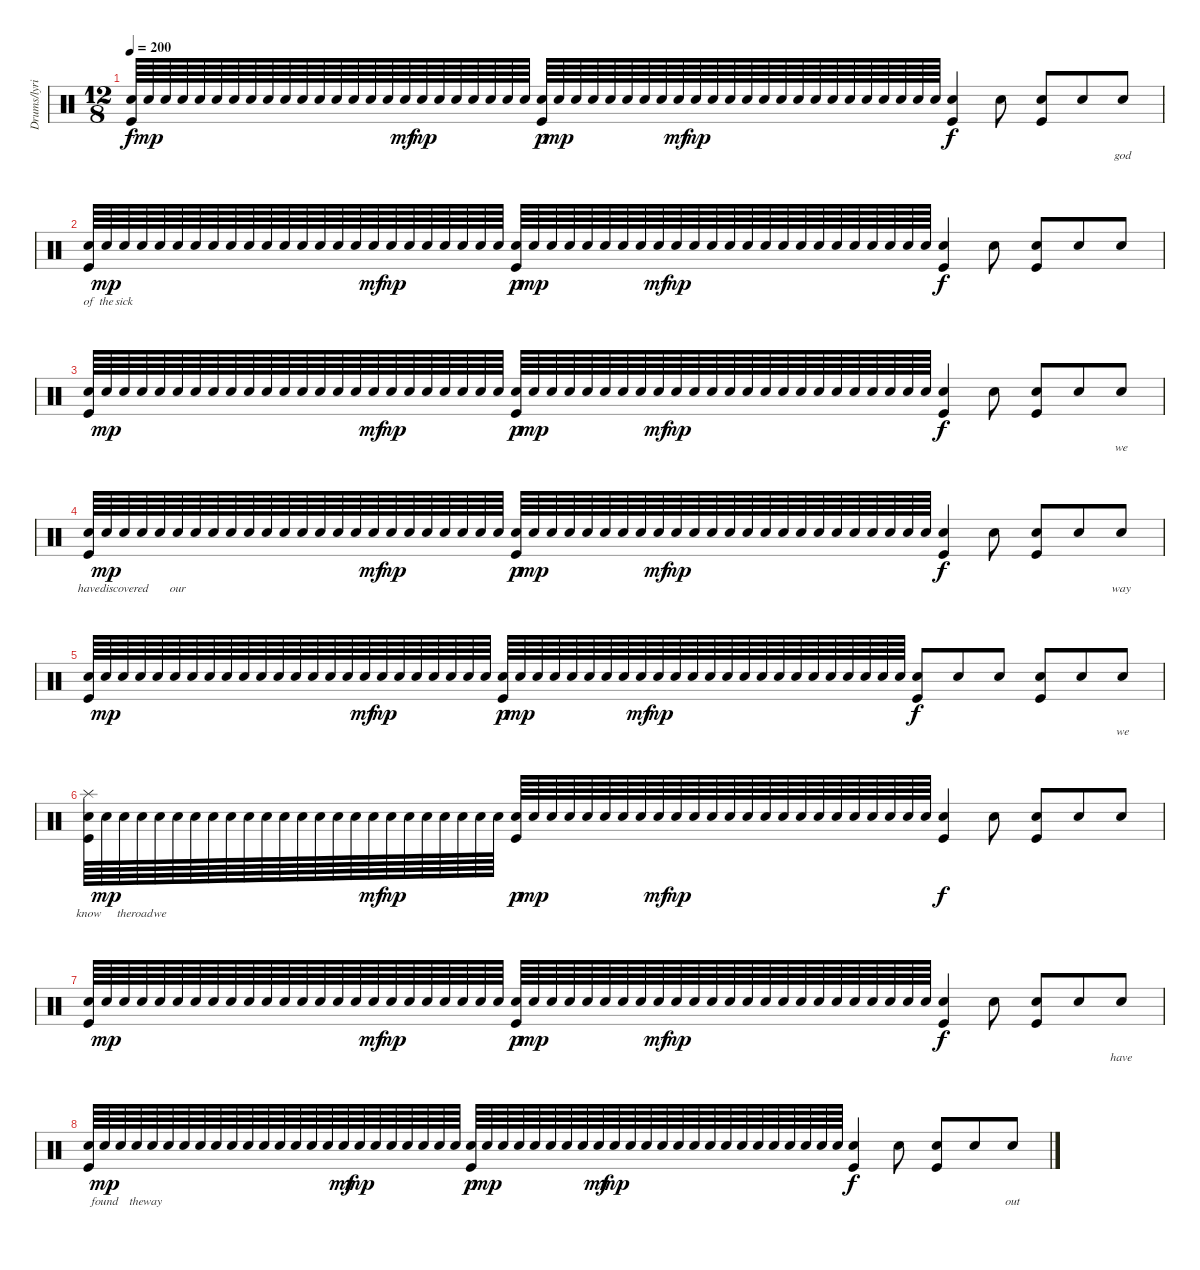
\track ("Drums/lyrics" "Drums/lyri") {instrument percussion}
\staff {score}
\articulation defaults
\ts (12 8)
\tempo 200
\clef neutral
\ks c
("Snare (hit) 2" "Kick (hit)").64{lyrics (0 "") lyrics (1 "") lyrics (2 "") lyrics (3 "") lyrics (4 "") dy f} "Snare (hit) 2".64{lyrics (0 "") lyrics (1 "") lyrics (2 "") lyrics (3 "") lyrics (4 "") dy mp} "Snare (hit) 2".64{lyrics (0 "") lyrics (1 "") lyrics (2 "") lyrics (3 "") lyrics (4 "")} "Snare (hit) 2".64{lyrics (0 "") lyrics (1 "") lyrics (2 "") lyrics (3 "") lyrics (4 "")} "Snare (hit) 2".64{lyrics (0 "") lyrics (1 "") lyrics (2 "") lyrics (3 "") lyrics (4 "")} "Snare (hit) 2".64{lyrics (0 "") lyrics (1 "") lyrics (2 "") lyrics (3 "") lyrics (4 "")} "Snare (hit) 2".64{lyrics (0 "") lyrics (1 "") lyrics (2 "") lyrics (3 "") lyrics (4 "")} "Snare (hit) 2".64{lyrics (0 "") lyrics (1 "") lyrics (2 "") lyrics (3 "") lyrics (4 "")} "Snare (hit) 2".64{lyrics (0 "") lyrics (1 "") lyrics (2 "") lyrics (3 "") lyrics (4 "")} "Snare (hit) 2".64{lyrics (0 "") lyrics (1 "") lyrics (2 "") lyrics (3 "") lyrics (4 "")} "Snare (hit) 2".64{lyrics (0 "") lyrics (1 "") lyrics (2 "") lyrics (3 "") lyrics (4 "")} "Snare (hit) 2".64{lyrics (0 "") lyrics (1 "") lyrics (2 "") lyrics (3 "") lyrics (4 "")} "Snare (hit) 2".64{lyrics (0 "") lyrics (1 "") lyrics (2 "") lyrics (3 "") lyrics (4 "")} "Snare (hit) 2".64{lyrics (0 "") lyrics (1 "") lyrics (2 "") lyrics (3 "") lyrics (4 "")} "Snare (hit) 2".64{lyrics (0 "") lyrics (1 "") lyrics (2 "") lyrics (3 "") lyrics (4 "")} "Snare (hit) 2".64{lyrics (0 "") lyrics (1 "") lyrics (2 "") lyrics (3 "") lyrics (4 "")} "Snare (hit) 2".64{lyrics (0 "") lyrics (1 "") lyrics (2 "") lyrics (3 "") lyrics (4 "") dy mf} "Snare (hit) 2".64{lyrics (0 "") lyrics (1 "") lyrics (2 "") lyrics (3 "") lyrics (4 "") dy mp} "Snare (hit) 2".64{lyrics (0 "") lyrics (1 "") lyrics (2 "") lyrics (3 "") lyrics (4 "")} "Snare (hit) 2".64{lyrics (0 "") lyrics (1 "") lyrics (2 "") lyrics (3 "") lyrics (4 "")} "Snare (hit) 2".64{lyrics (0 "") lyrics (1 "") lyrics (2 "") lyrics (3 "") lyrics (4 "")} "Snare (hit) 2".64{lyrics (0 "") lyrics (1 "") lyrics (2 "") lyrics (3 "") lyrics (4 "")} "Snare (hit) 2".64{lyrics (0 "") lyrics (1 "") lyrics (2 "") lyrics (3 "") lyrics (4 "")} "Snare (hit) 2".64{lyrics (0 "") lyrics (1 "") lyrics (2 "") lyrics (3 "") lyrics (4 "")} ("Snare (hit) 2" "Kick (hit)").64{lyrics (0 "") lyrics (1 "") lyrics (2 "") lyrics (3 "") lyrics (4 "") dy p} "Snare (hit) 2".64{lyrics (0 "") lyrics (1 "") lyrics (2 "") lyrics (3 "") lyrics (4 "") dy mp} "Snare (hit) 2".64{lyrics (0 "") lyrics (1 "") lyrics (2 "") lyrics (3 "") lyrics (4 "")} "Snare (hit) 2".64{lyrics (0 "") lyrics (1 "") lyrics (2 "") lyrics (3 "") lyrics (4 "")} "Snare (hit) 2".64{lyrics (0 "") lyrics (1 "") lyrics (2 "") lyrics (3 "") lyrics (4 "")} "Snare (hit) 2".64{lyrics (0 "") lyrics (1 "") lyrics (2 "") lyrics (3 "") lyrics (4 "")} "Snare (hit) 2".64{lyrics (0 "") lyrics (1 "") lyrics (2 "") lyrics (3 "") lyrics (4 "")} "Snare (hit) 2".64{lyrics (0 "") lyrics (1 "") lyrics (2 "") lyrics (3 "") lyrics (4 "")} "Snare (hit) 2".64{lyrics (0 "") lyrics (1 "") lyrics (2 "") lyrics (3 "") lyrics (4 "") dy mf} "Snare (hit) 2".64{lyrics (0 "") lyrics (1 "") lyrics (2 "") lyrics (3 "") lyrics (4 "") dy mp} "Snare (hit) 2".64{lyrics (0 "") lyrics (1 "") lyrics (2 "") lyrics (3 "") lyrics (4 "")} "Snare (hit) 2".64{lyrics (0 "") lyrics (1 "") lyrics (2 "") lyrics (3 "") lyrics (4 "")} "Snare (hit) 2".64{lyrics (0 "") lyrics (1 "") lyrics (2 "") lyrics (3 "") lyrics (4 "")} "Snare (hit) 2".64{lyrics (0 "") lyrics (1 "") lyrics (2 "") lyrics (3 "") lyrics (4 "")} "Snare (hit) 2".64{lyrics (0 "") lyrics (1 "") lyrics (2 "") lyrics (3 "") lyrics (4 "")} "Snare (hit) 2".64{lyrics (0 "") lyrics (1 "") lyrics (2 "") lyrics (3 "") lyrics (4 "")} "Snare (hit) 2".64{lyrics (0 "") lyrics (1 "") lyrics (2 "") lyrics (3 "") lyrics (4 "")} "Snare (hit) 2".64{lyrics (0 "") lyrics (1 "") lyrics (2 "") lyrics (3 "") lyrics (4 "")} "Snare (hit) 2".64{lyrics (0 "") lyrics (1 "") lyrics (2 "") lyrics (3 "") lyrics (4 "")} "Snare (hit) 2".64{lyrics (0 "") lyrics (1 "") lyrics (2 "") lyrics (3 "") lyrics (4 "")} "Snare (hit) 2".64{lyrics (0 "") lyrics (1 "") lyrics (2 "") lyrics (3 "") lyrics (4 "")} "Snare (hit) 2".64{lyrics (0 "") lyrics (1 "") lyrics (2 "") lyrics (3 "") lyrics (4 "")} "Snare (hit) 2".64{lyrics (0 "") lyrics (1 "") lyrics (2 "") lyrics (3 "") lyrics (4 "")} "Snare (hit) 2".64{lyrics (0 "") lyrics (1 "") lyrics (2 "") lyrics (3 "") lyrics (4 "")} ("Snare (hit) 2" "Kick (hit)").4{lyrics (0 "") lyrics (1 "") lyrics (2 "") lyrics (3 "") lyrics (4 "") dy f} "Snare (hit) 2".8{lyrics (0 "") lyrics (1 "") lyrics (2 "") lyrics (3 "") lyrics (4 "")} ("Snare (hit) 2" "Kick (hit)").8{lyrics (0 "") lyrics (1 "") lyrics (2 "") lyrics (3 "") lyrics (4 "")} "Snare (hit) 2".8{lyrics (0 "") lyrics (1 "") lyrics (2 "") lyrics (3 "") lyrics (4 "")} "Snare (hit) 2".8{lyrics (0 "god") lyrics (1 "") lyrics (2 "") lyrics (3 "") lyrics (4 "")} |
("Snare (hit) 2" "Kick (hit)").64{lyrics (0 "of") lyrics (1 "") lyrics (2 "") lyrics (3 "") lyrics (4 "")} "Snare (hit) 2".64{lyrics (0 "the") lyrics (1 "") lyrics (2 "") lyrics (3 "") lyrics (4 "") dy mp} "Snare (hit) 2".64{lyrics (0 "sick") lyrics (1 "") lyrics (2 "") lyrics (3 "") lyrics (4 "")} "Snare (hit) 2".64{lyrics (0 "") lyrics (1 "") lyrics (2 "") lyrics (3 "") lyrics (4 "")} "Snare (hit) 2".64{lyrics (0 "") lyrics (1 "") lyrics (2 "") lyrics (3 "") lyrics (4 "")} "Snare (hit) 2".64{lyrics (0 "") lyrics (1 "") lyrics (2 "") lyrics (3 "") lyrics (4 "")} "Snare (hit) 2".64{lyrics (0 "") lyrics (1 "") lyrics (2 "") lyrics (3 "") lyrics (4 "")} "Snare (hit) 2".64{lyrics (0 "") lyrics (1 "") lyrics (2 "") lyrics (3 "") lyrics (4 "")} "Snare (hit) 2".64{lyrics (0 "") lyrics (1 "") lyrics (2 "") lyrics (3 "") lyrics (4 "")} "Snare (hit) 2".64{lyrics (0 "") lyrics (1 "") lyrics (2 "") lyrics (3 "") lyrics (4 "")} "Snare (hit) 2".64{lyrics (0 "") lyrics (1 "") lyrics (2 "") lyrics (3 "") lyrics (4 "")} "Snare (hit) 2".64{lyrics (0 "") lyrics (1 "") lyrics (2 "") lyrics (3 "") lyrics (4 "")} "Snare (hit) 2".64{lyrics (0 "") lyrics (1 "") lyrics (2 "") lyrics (3 "") lyrics (4 "")} "Snare (hit) 2".64{lyrics (0 "") lyrics (1 "") lyrics (2 "") lyrics (3 "") lyrics (4 "")} "Snare (hit) 2".64{lyrics (0 "") lyrics (1 "") lyrics (2 "") lyrics (3 "") lyrics (4 "")} "Snare (hit) 2".64{lyrics (0 "") lyrics (1 "") lyrics (2 "") lyrics (3 "") lyrics (4 "")} "Snare (hit) 2".64{lyrics (0 "") lyrics (1 "") lyrics (2 "") lyrics (3 "") lyrics (4 "") dy mf} "Snare (hit) 2".64{lyrics (0 "") lyrics (1 "") lyrics (2 "") lyrics (3 "") lyrics (4 "") dy mp} "Snare (hit) 2".64{lyrics (0 "") lyrics (1 "") lyrics (2 "") lyrics (3 "") lyrics (4 "")} "Snare (hit) 2".64{lyrics (0 "") lyrics (1 "") lyrics (2 "") lyrics (3 "") lyrics (4 "")} "Snare (hit) 2".64{lyrics (0 "") lyrics (1 "") lyrics (2 "") lyrics (3 "") lyrics (4 "")} "Snare (hit) 2".64{lyrics (0 "") lyrics (1 "") lyrics (2 "") lyrics (3 "") lyrics (4 "")} "Snare (hit) 2".64{lyrics (0 "") lyrics (1 "") lyrics (2 "") lyrics (3 "") lyrics (4 "")} "Snare (hit) 2".64{lyrics (0 "") lyrics (1 "") lyrics (2 "") lyrics (3 "") lyrics (4 "")} ("Snare (hit) 2" "Kick (hit)").64{lyrics (0 "") lyrics (1 "") lyrics (2 "") lyrics (3 "") lyrics (4 "") dy p} "Snare (hit) 2".64{lyrics (0 "") lyrics (1 "") lyrics (2 "") lyrics (3 "") lyrics (4 "") dy mp} "Snare (hit) 2".64{lyrics (0 "") lyrics (1 "") lyrics (2 "") lyrics (3 "") lyrics (4 "")} "Snare (hit) 2".64{lyrics (0 "") lyrics (1 "") lyrics (2 "") lyrics (3 "") lyrics (4 "")} "Snare (hit) 2".64{lyrics (0 "") lyrics (1 "") lyrics (2 "") lyrics (3 "") lyrics (4 "")} "Snare (hit) 2".64{lyrics (0 "") lyrics (1 "") lyrics (2 "") lyrics (3 "") lyrics (4 "")} "Snare (hit) 2".64{lyrics (0 "") lyrics (1 "") lyrics (2 "") lyrics (3 "") lyrics (4 "")} "Snare (hit) 2".64{lyrics (0 "") lyrics (1 "") lyrics (2 "") lyrics (3 "") lyrics (4 "")} "Snare (hit) 2".64{lyrics (0 "") lyrics (1 "") lyrics (2 "") lyrics (3 "") lyrics (4 "") dy mf} "Snare (hit) 2".64{lyrics (0 "") lyrics (1 "") lyrics (2 "") lyrics (3 "") lyrics (4 "") dy mp} "Snare (hit) 2".64{lyrics (0 "") lyrics (1 "") lyrics (2 "") lyrics (3 "") lyrics (4 "")} "Snare (hit) 2".64{lyrics (0 "") lyrics (1 "") lyrics (2 "") lyrics (3 "") lyrics (4 "")} "Snare (hit) 2".64{lyrics (0 "") lyrics (1 "") lyrics (2 "") lyrics (3 "") lyrics (4 "")} "Snare (hit) 2".64{lyrics (0 "") lyrics (1 "") lyrics (2 "") lyrics (3 "") lyrics (4 "")} "Snare (hit) 2".64{lyrics (0 "") lyrics (1 "") lyrics (2 "") lyrics (3 "") lyrics (4 "")} "Snare (hit) 2".64{lyrics (0 "") lyrics (1 "") lyrics (2 "") lyrics (3 "") lyrics (4 "")} "Snare (hit) 2".64{lyrics (0 "") lyrics (1 "") lyrics (2 "") lyrics (3 "") lyrics (4 "")} "Snare (hit) 2".64{lyrics (0 "") lyrics (1 "") lyrics (2 "") lyrics (3 "") lyrics (4 "")} "Snare (hit) 2".64{lyrics (0 "") lyrics (1 "") lyrics (2 "") lyrics (3 "") lyrics (4 "")} "Snare (hit) 2".64{lyrics (0 "") lyrics (1 "") lyrics (2 "") lyrics (3 "") lyrics (4 "")} "Snare (hit) 2".64{lyrics (0 "") lyrics (1 "") lyrics (2 "") lyrics (3 "") lyrics (4 "")} "Snare (hit) 2".64{lyrics (0 "") lyrics (1 "") lyrics (2 "") lyrics (3 "") lyrics (4 "")} "Snare (hit) 2".64{lyrics (0 "") lyrics (1 "") lyrics (2 "") lyrics (3 "") lyrics (4 "")} "Snare (hit) 2".64{lyrics (0 "") lyrics (1 "") lyrics (2 "") lyrics (3 "") lyrics (4 "")} ("Snare (hit) 2" "Kick (hit)").4{lyrics (0 "") lyrics (1 "") lyrics (2 "") lyrics (3 "") lyrics (4 "") dy f} "Snare (hit) 2".8{lyrics (0 "") lyrics (1 "") lyrics (2 "") lyrics (3 "") lyrics (4 "")} ("Snare (hit) 2" "Kick (hit)").8{lyrics (0 "") lyrics (1 "") lyrics (2 "") lyrics (3 "") lyrics (4 "")} "Snare (hit) 2".8{lyrics (0 "") lyrics (1 "") lyrics (2 "") lyrics (3 "") lyrics (4 "")} "Snare (hit) 2".8{lyrics (0 "") lyrics (1 "") lyrics (2 "") lyrics (3 "") lyrics (4 "")} |
("Snare (hit) 2" "Kick (hit)").64{lyrics (0 "") lyrics (1 "") lyrics (2 "") lyrics (3 "") lyrics (4 "")} "Snare (hit) 2".64{lyrics (0 "") lyrics (1 "") lyrics (2 "") lyrics (3 "") lyrics (4 "") dy mp} "Snare (hit) 2".64{lyrics (0 "") lyrics (1 "") lyrics (2 "") lyrics (3 "") lyrics (4 "")} "Snare (hit) 2".64{lyrics (0 "") lyrics (1 "") lyrics (2 "") lyrics (3 "") lyrics (4 "")} "Snare (hit) 2".64{lyrics (0 "") lyrics (1 "") lyrics (2 "") lyrics (3 "") lyrics (4 "")} "Snare (hit) 2".64{lyrics (0 "") lyrics (1 "") lyrics (2 "") lyrics (3 "") lyrics (4 "")} "Snare (hit) 2".64{lyrics (0 "") lyrics (1 "") lyrics (2 "") lyrics (3 "") lyrics (4 "")} "Snare (hit) 2".64{lyrics (0 "") lyrics (1 "") lyrics (2 "") lyrics (3 "") lyrics (4 "")} "Snare (hit) 2".64{lyrics (0 "") lyrics (1 "") lyrics (2 "") lyrics (3 "") lyrics (4 "")} "Snare (hit) 2".64{lyrics (0 "") lyrics (1 "") lyrics (2 "") lyrics (3 "") lyrics (4 "")} "Snare (hit) 2".64{lyrics (0 "") lyrics (1 "") lyrics (2 "") lyrics (3 "") lyrics (4 "")} "Snare (hit) 2".64{lyrics (0 "") lyrics (1 "") lyrics (2 "") lyrics (3 "") lyrics (4 "")} "Snare (hit) 2".64{lyrics (0 "") lyrics (1 "") lyrics (2 "") lyrics (3 "") lyrics (4 "")} "Snare (hit) 2".64{lyrics (0 "") lyrics (1 "") lyrics (2 "") lyrics (3 "") lyrics (4 "")} "Snare (hit) 2".64{lyrics (0 "") lyrics (1 "") lyrics (2 "") lyrics (3 "") lyrics (4 "")} "Snare (hit) 2".64{lyrics (0 "") lyrics (1 "") lyrics (2 "") lyrics (3 "") lyrics (4 "")} "Snare (hit) 2".64{lyrics (0 "") lyrics (1 "") lyrics (2 "") lyrics (3 "") lyrics (4 "") dy mf} "Snare (hit) 2".64{lyrics (0 "") lyrics (1 "") lyrics (2 "") lyrics (3 "") lyrics (4 "") dy mp} "Snare (hit) 2".64{lyrics (0 "") lyrics (1 "") lyrics (2 "") lyrics (3 "") lyrics (4 "")} "Snare (hit) 2".64{lyrics (0 "") lyrics (1 "") lyrics (2 "") lyrics (3 "") lyrics (4 "")} "Snare (hit) 2".64{lyrics (0 "") lyrics (1 "") lyrics (2 "") lyrics (3 "") lyrics (4 "")} "Snare (hit) 2".64{lyrics (0 "") lyrics (1 "") lyrics (2 "") lyrics (3 "") lyrics (4 "")} "Snare (hit) 2".64{lyrics (0 "") lyrics (1 "") lyrics (2 "") lyrics (3 "") lyrics (4 "")} "Snare (hit) 2".64{lyrics (0 "") lyrics (1 "") lyrics (2 "") lyrics (3 "") lyrics (4 "")} ("Snare (hit) 2" "Kick (hit)").64{lyrics (0 "") lyrics (1 "") lyrics (2 "") lyrics (3 "") lyrics (4 "") dy p} "Snare (hit) 2".64{lyrics (0 "") lyrics (1 "") lyrics (2 "") lyrics (3 "") lyrics (4 "") dy mp} "Snare (hit) 2".64{lyrics (0 "") lyrics (1 "") lyrics (2 "") lyrics (3 "") lyrics (4 "")} "Snare (hit) 2".64{lyrics (0 "") lyrics (1 "") lyrics (2 "") lyrics (3 "") lyrics (4 "")} "Snare (hit) 2".64{lyrics (0 "") lyrics (1 "") lyrics (2 "") lyrics (3 "") lyrics (4 "")} "Snare (hit) 2".64{lyrics (0 "") lyrics (1 "") lyrics (2 "") lyrics (3 "") lyrics (4 "")} "Snare (hit) 2".64{lyrics (0 "") lyrics (1 "") lyrics (2 "") lyrics (3 "") lyrics (4 "")} "Snare (hit) 2".64{lyrics (0 "") lyrics (1 "") lyrics (2 "") lyrics (3 "") lyrics (4 "")} "Snare (hit) 2".64{lyrics (0 "") lyrics (1 "") lyrics (2 "") lyrics (3 "") lyrics (4 "") dy mf} "Snare (hit) 2".64{lyrics (0 "") lyrics (1 "") lyrics (2 "") lyrics (3 "") lyrics (4 "") dy mp} "Snare (hit) 2".64{lyrics (0 "") lyrics (1 "") lyrics (2 "") lyrics (3 "") lyrics (4 "")} "Snare (hit) 2".64{lyrics (0 "") lyrics (1 "") lyrics (2 "") lyrics (3 "") lyrics (4 "")} "Snare (hit) 2".64{lyrics (0 "") lyrics (1 "") lyrics (2 "") lyrics (3 "") lyrics (4 "")} "Snare (hit) 2".64{lyrics (0 "") lyrics (1 "") lyrics (2 "") lyrics (3 "") lyrics (4 "")} "Snare (hit) 2".64{lyrics (0 "") lyrics (1 "") lyrics (2 "") lyrics (3 "") lyrics (4 "")} "Snare (hit) 2".64{lyrics (0 "") lyrics (1 "") lyrics (2 "") lyrics (3 "") lyrics (4 "")} "Snare (hit) 2".64{lyrics (0 "") lyrics (1 "") lyrics (2 "") lyrics (3 "") lyrics (4 "")} "Snare (hit) 2".64{lyrics (0 "") lyrics (1 "") lyrics (2 "") lyrics (3 "") lyrics (4 "")} "Snare (hit) 2".64{lyrics (0 "") lyrics (1 "") lyrics (2 "") lyrics (3 "") lyrics (4 "")} "Snare (hit) 2".64{lyrics (0 "") lyrics (1 "") lyrics (2 "") lyrics (3 "") lyrics (4 "")} "Snare (hit) 2".64{lyrics (0 "") lyrics (1 "") lyrics (2 "") lyrics (3 "") lyrics (4 "")} "Snare (hit) 2".64{lyrics (0 "") lyrics (1 "") lyrics (2 "") lyrics (3 "") lyrics (4 "")} "Snare (hit) 2".64{lyrics (0 "") lyrics (1 "") lyrics (2 "") lyrics (3 "") lyrics (4 "")} "Snare (hit) 2".64{lyrics (0 "") lyrics (1 "") lyrics (2 "") lyrics (3 "") lyrics (4 "")} ("Snare (hit) 2" "Kick (hit)").4{lyrics (0 "") lyrics (1 "") lyrics (2 "") lyrics (3 "") lyrics (4 "") dy f} "Snare (hit) 2".8{lyrics (0 "") lyrics (1 "") lyrics (2 "") lyrics (3 "") lyrics (4 "")} ("Snare (hit) 2" "Kick (hit)").8{lyrics (0 "") lyrics (1 "") lyrics (2 "") lyrics (3 "") lyrics (4 "")} "Snare (hit) 2".8{lyrics (0 "") lyrics (1 "") lyrics (2 "") lyrics (3 "") lyrics (4 "")} "Snare (hit) 2".8{lyrics (0 "we") lyrics (1 "") lyrics (2 "") lyrics (3 "") lyrics (4 "")} |
("Snare (hit) 2" "Kick (hit)").64{lyrics (0 "have") lyrics (1 "") lyrics (2 "") lyrics (3 "") lyrics (4 "")} "Snare (hit) 2".64{lyrics (0 "") lyrics (1 "") lyrics (2 "") lyrics (3 "") lyrics (4 "") dy mp} "Snare (hit) 2".64{lyrics (0 "discovered") lyrics (1 "") lyrics (2 "") lyrics (3 "") lyrics (4 "")} "Snare (hit) 2".64{lyrics (0 "") lyrics (1 "") lyrics (2 "") lyrics (3 "") lyrics (4 "")} "Snare (hit) 2".64{lyrics (0 "") lyrics (1 "") lyrics (2 "") lyrics (3 "") lyrics (4 "")} "Snare (hit) 2".64{lyrics (0 "our") lyrics (1 "") lyrics (2 "") lyrics (3 "") lyrics (4 "")} "Snare (hit) 2".64{lyrics (0 "") lyrics (1 "") lyrics (2 "") lyrics (3 "") lyrics (4 "")} "Snare (hit) 2".64{lyrics (0 "") lyrics (1 "") lyrics (2 "") lyrics (3 "") lyrics (4 "")} "Snare (hit) 2".64{lyrics (0 "") lyrics (1 "") lyrics (2 "") lyrics (3 "") lyrics (4 "")} "Snare (hit) 2".64{lyrics (0 "") lyrics (1 "") lyrics (2 "") lyrics (3 "") lyrics (4 "")} "Snare (hit) 2".64{lyrics (0 "") lyrics (1 "") lyrics (2 "") lyrics (3 "") lyrics (4 "")} "Snare (hit) 2".64{lyrics (0 "") lyrics (1 "") lyrics (2 "") lyrics (3 "") lyrics (4 "")} "Snare (hit) 2".64{lyrics (0 "") lyrics (1 "") lyrics (2 "") lyrics (3 "") lyrics (4 "")} "Snare (hit) 2".64{lyrics (0 "") lyrics (1 "") lyrics (2 "") lyrics (3 "") lyrics (4 "")} "Snare (hit) 2".64{lyrics (0 "") lyrics (1 "") lyrics (2 "") lyrics (3 "") lyrics (4 "")} "Snare (hit) 2".64{lyrics (0 "") lyrics (1 "") lyrics (2 "") lyrics (3 "") lyrics (4 "")} "Snare (hit) 2".64{lyrics (0 "") lyrics (1 "") lyrics (2 "") lyrics (3 "") lyrics (4 "") dy mf} "Snare (hit) 2".64{lyrics (0 "") lyrics (1 "") lyrics (2 "") lyrics (3 "") lyrics (4 "") dy mp} "Snare (hit) 2".64{lyrics (0 "") lyrics (1 "") lyrics (2 "") lyrics (3 "") lyrics (4 "")} "Snare (hit) 2".64{lyrics (0 "") lyrics (1 "") lyrics (2 "") lyrics (3 "") lyrics (4 "")} "Snare (hit) 2".64{lyrics (0 "") lyrics (1 "") lyrics (2 "") lyrics (3 "") lyrics (4 "")} "Snare (hit) 2".64{lyrics (0 "") lyrics (1 "") lyrics (2 "") lyrics (3 "") lyrics (4 "")} "Snare (hit) 2".64{lyrics (0 "") lyrics (1 "") lyrics (2 "") lyrics (3 "") lyrics (4 "")} "Snare (hit) 2".64{lyrics (0 "") lyrics (1 "") lyrics (2 "") lyrics (3 "") lyrics (4 "")} ("Snare (hit) 2" "Kick (hit)").64{lyrics (0 "") lyrics (1 "") lyrics (2 "") lyrics (3 "") lyrics (4 "") dy p} "Snare (hit) 2".64{lyrics (0 "") lyrics (1 "") lyrics (2 "") lyrics (3 "") lyrics (4 "") dy mp} "Snare (hit) 2".64{lyrics (0 "") lyrics (1 "") lyrics (2 "") lyrics (3 "") lyrics (4 "")} "Snare (hit) 2".64{lyrics (0 "") lyrics (1 "") lyrics (2 "") lyrics (3 "") lyrics (4 "")} "Snare (hit) 2".64{lyrics (0 "") lyrics (1 "") lyrics (2 "") lyrics (3 "") lyrics (4 "")} "Snare (hit) 2".64{lyrics (0 "") lyrics (1 "") lyrics (2 "") lyrics (3 "") lyrics (4 "")} "Snare (hit) 2".64{lyrics (0 "") lyrics (1 "") lyrics (2 "") lyrics (3 "") lyrics (4 "")} "Snare (hit) 2".64{lyrics (0 "") lyrics (1 "") lyrics (2 "") lyrics (3 "") lyrics (4 "")} "Snare (hit) 2".64{lyrics (0 "") lyrics (1 "") lyrics (2 "") lyrics (3 "") lyrics (4 "") dy mf} "Snare (hit) 2".64{lyrics (0 "") lyrics (1 "") lyrics (2 "") lyrics (3 "") lyrics (4 "") dy mp} "Snare (hit) 2".64{lyrics (0 "") lyrics (1 "") lyrics (2 "") lyrics (3 "") lyrics (4 "")} "Snare (hit) 2".64{lyrics (0 "") lyrics (1 "") lyrics (2 "") lyrics (3 "") lyrics (4 "")} "Snare (hit) 2".64{lyrics (0 "") lyrics (1 "") lyrics (2 "") lyrics (3 "") lyrics (4 "")} "Snare (hit) 2".64{lyrics (0 "") lyrics (1 "") lyrics (2 "") lyrics (3 "") lyrics (4 "")} "Snare (hit) 2".64{lyrics (0 "") lyrics (1 "") lyrics (2 "") lyrics (3 "") lyrics (4 "")} "Snare (hit) 2".64{lyrics (0 "") lyrics (1 "") lyrics (2 "") lyrics (3 "") lyrics (4 "")} "Snare (hit) 2".64{lyrics (0 "") lyrics (1 "") lyrics (2 "") lyrics (3 "") lyrics (4 "")} "Snare (hit) 2".64{lyrics (0 "") lyrics (1 "") lyrics (2 "") lyrics (3 "") lyrics (4 "")} "Snare (hit) 2".64{lyrics (0 "") lyrics (1 "") lyrics (2 "") lyrics (3 "") lyrics (4 "")} "Snare (hit) 2".64{lyrics (0 "") lyrics (1 "") lyrics (2 "") lyrics (3 "") lyrics (4 "")} "Snare (hit) 2".64{lyrics (0 "") lyrics (1 "") lyrics (2 "") lyrics (3 "") lyrics (4 "")} "Snare (hit) 2".64{lyrics (0 "") lyrics (1 "") lyrics (2 "") lyrics (3 "") lyrics (4 "")} "Snare (hit) 2".64{lyrics (0 "") lyrics (1 "") lyrics (2 "") lyrics (3 "") lyrics (4 "")} "Snare (hit) 2".64{lyrics (0 "") lyrics (1 "") lyrics (2 "") lyrics (3 "") lyrics (4 "")} ("Snare (hit) 2" "Kick (hit)").4{lyrics (0 "") lyrics (1 "") lyrics (2 "") lyrics (3 "") lyrics (4 "") dy f} "Snare (hit) 2".8{lyrics (0 "") lyrics (1 "") lyrics (2 "") lyrics (3 "") lyrics (4 "")} ("Snare (hit) 2" "Kick (hit)").8{lyrics (0 "") lyrics (1 "") lyrics (2 "") lyrics (3 "") lyrics (4 "")} "Snare (hit) 2".8{lyrics (0 "") lyrics (1 "") lyrics (2 "") lyrics (3 "") lyrics (4 "")} "Snare (hit) 2".8{lyrics (0 "way") lyrics (1 "") lyrics (2 "") lyrics (3 "") lyrics (4 "")} |
("Snare (hit) 2" "Kick (hit)").64{lyrics (0 "") lyrics (1 "") lyrics (2 "") lyrics (3 "") lyrics (4 "")} "Snare (hit) 2".64{lyrics (0 "") lyrics (1 "") lyrics (2 "") lyrics (3 "") lyrics (4 "") dy mp} "Snare (hit) 2".64{lyrics (0 "") lyrics (1 "") lyrics (2 "") lyrics (3 "") lyrics (4 "")} "Snare (hit) 2".64{lyrics (0 "") lyrics (1 "") lyrics (2 "") lyrics (3 "") lyrics (4 "")} "Snare (hit) 2".64{lyrics (0 "") lyrics (1 "") lyrics (2 "") lyrics (3 "") lyrics (4 "")} "Snare (hit) 2".64{lyrics (0 "") lyrics (1 "") lyrics (2 "") lyrics (3 "") lyrics (4 "")} "Snare (hit) 2".64{lyrics (0 "") lyrics (1 "") lyrics (2 "") lyrics (3 "") lyrics (4 "")} "Snare (hit) 2".64{lyrics (0 "") lyrics (1 "") lyrics (2 "") lyrics (3 "") lyrics (4 "")} "Snare (hit) 2".64{lyrics (0 "") lyrics (1 "") lyrics (2 "") lyrics (3 "") lyrics (4 "")} "Snare (hit) 2".64{lyrics (0 "") lyrics (1 "") lyrics (2 "") lyrics (3 "") lyrics (4 "")} "Snare (hit) 2".64{lyrics (0 "") lyrics (1 "") lyrics (2 "") lyrics (3 "") lyrics (4 "")} "Snare (hit) 2".64{lyrics (0 "") lyrics (1 "") lyrics (2 "") lyrics (3 "") lyrics (4 "")} "Snare (hit) 2".64{lyrics (0 "") lyrics (1 "") lyrics (2 "") lyrics (3 "") lyrics (4 "")} "Snare (hit) 2".64{lyrics (0 "") lyrics (1 "") lyrics (2 "") lyrics (3 "") lyrics (4 "")} "Snare (hit) 2".64{lyrics (0 "") lyrics (1 "") lyrics (2 "") lyrics (3 "") lyrics (4 "")} "Snare (hit) 2".64{lyrics (0 "") lyrics (1 "") lyrics (2 "") lyrics (3 "") lyrics (4 "")} "Snare (hit) 2".64{lyrics (0 "") lyrics (1 "") lyrics (2 "") lyrics (3 "") lyrics (4 "") dy mf} "Snare (hit) 2".64{lyrics (0 "") lyrics (1 "") lyrics (2 "") lyrics (3 "") lyrics (4 "") dy mp} "Snare (hit) 2".64{lyrics (0 "") lyrics (1 "") lyrics (2 "") lyrics (3 "") lyrics (4 "")} "Snare (hit) 2".64{lyrics (0 "") lyrics (1 "") lyrics (2 "") lyrics (3 "") lyrics (4 "")} "Snare (hit) 2".64{lyrics (0 "") lyrics (1 "") lyrics (2 "") lyrics (3 "") lyrics (4 "")} "Snare (hit) 2".64{lyrics (0 "") lyrics (1 "") lyrics (2 "") lyrics (3 "") lyrics (4 "")} "Snare (hit) 2".64{lyrics (0 "") lyrics (1 "") lyrics (2 "") lyrics (3 "") lyrics (4 "")} "Snare (hit) 2".64{lyrics (0 "") lyrics (1 "") lyrics (2 "") lyrics (3 "") lyrics (4 "")} ("Snare (hit) 2" "Kick (hit)").64{lyrics (0 "") lyrics (1 "") lyrics (2 "") lyrics (3 "") lyrics (4 "") dy p} "Snare (hit) 2".64{lyrics (0 "") lyrics (1 "") lyrics (2 "") lyrics (3 "") lyrics (4 "") dy mp} "Snare (hit) 2".64{lyrics (0 "") lyrics (1 "") lyrics (2 "") lyrics (3 "") lyrics (4 "")} "Snare (hit) 2".64{lyrics (0 "") lyrics (1 "") lyrics (2 "") lyrics (3 "") lyrics (4 "")} "Snare (hit) 2".64{lyrics (0 "") lyrics (1 "") lyrics (2 "") lyrics (3 "") lyrics (4 "")} "Snare (hit) 2".64{lyrics (0 "") lyrics (1 "") lyrics (2 "") lyrics (3 "") lyrics (4 "")} "Snare (hit) 2".64{lyrics (0 "") lyrics (1 "") lyrics (2 "") lyrics (3 "") lyrics (4 "")} "Snare (hit) 2".64{lyrics (0 "") lyrics (1 "") lyrics (2 "") lyrics (3 "") lyrics (4 "")} "Snare (hit) 2".64{lyrics (0 "") lyrics (1 "") lyrics (2 "") lyrics (3 "") lyrics (4 "") dy mf} "Snare (hit) 2".64{lyrics (0 "") lyrics (1 "") lyrics (2 "") lyrics (3 "") lyrics (4 "") dy mp} "Snare (hit) 2".64{lyrics (0 "") lyrics (1 "") lyrics (2 "") lyrics (3 "") lyrics (4 "")} "Snare (hit) 2".64{lyrics (0 "") lyrics (1 "") lyrics (2 "") lyrics (3 "") lyrics (4 "")} "Snare (hit) 2".64{lyrics (0 "") lyrics (1 "") lyrics (2 "") lyrics (3 "") lyrics (4 "")} "Snare (hit) 2".64{lyrics (0 "") lyrics (1 "") lyrics (2 "") lyrics (3 "") lyrics (4 "")} "Snare (hit) 2".64{lyrics (0 "") lyrics (1 "") lyrics (2 "") lyrics (3 "") lyrics (4 "")} "Snare (hit) 2".64{lyrics (0 "") lyrics (1 "") lyrics (2 "") lyrics (3 "") lyrics (4 "")} "Snare (hit) 2".64{lyrics (0 "") lyrics (1 "") lyrics (2 "") lyrics (3 "") lyrics (4 "")} "Snare (hit) 2".64{lyrics (0 "") lyrics (1 "") lyrics (2 "") lyrics (3 "") lyrics (4 "")} "Snare (hit) 2".64{lyrics (0 "") lyrics (1 "") lyrics (2 "") lyrics (3 "") lyrics (4 "")} "Snare (hit) 2".64{lyrics (0 "") lyrics (1 "") lyrics (2 "") lyrics (3 "") lyrics (4 "")} "Snare (hit) 2".64{lyrics (0 "") lyrics (1 "") lyrics (2 "") lyrics (3 "") lyrics (4 "")} "Snare (hit) 2".64{lyrics (0 "") lyrics (1 "") lyrics (2 "") lyrics (3 "") lyrics (4 "")} "Snare (hit) 2".64{lyrics (0 "") lyrics (1 "") lyrics (2 "") lyrics (3 "") lyrics (4 "")} "Snare (hit) 2".64{lyrics (0 "") lyrics (1 "") lyrics (2 "") lyrics (3 "") lyrics (4 "")} ("Snare (hit) 2" "Kick (hit)").8{lyrics (0 "") lyrics (1 "") lyrics (2 "") lyrics (3 "") lyrics (4 "") dy f} "Snare (hit) 2".8{lyrics (0 "") lyrics (1 "") lyrics (2 "") lyrics (3 "") lyrics (4 "")} "Snare (hit) 2".8{lyrics (0 "") lyrics (1 "") lyrics (2 "") lyrics (3 "") lyrics (4 "")} ("Snare (hit) 2" "Kick (hit)").8{lyrics (0 "") lyrics (1 "") lyrics (2 "") lyrics (3 "") lyrics (4 "")} "Snare (hit) 2".8{lyrics (0 "") lyrics (1 "") lyrics (2 "") lyrics (3 "") lyrics (4 "")} "Snare (hit) 2".8{lyrics (0 "we") lyrics (1 "") lyrics (2 "") lyrics (3 "") lyrics (4 "")} |
("Splash (hit)" "Snare (hit) 2" "Kick (hit)").64{lyrics (0 "know") lyrics (1 "") lyrics (2 "") lyrics (3 "") lyrics (4 "")} "Snare (hit) 2".64{lyrics (0 "") lyrics (1 "") lyrics (2 "") lyrics (3 "") lyrics (4 "") dy mp} "Snare (hit) 2".64{lyrics (0 "the") lyrics (1 "") lyrics (2 "") lyrics (3 "") lyrics (4 "")} "Snare (hit) 2".64{lyrics (0 "road") lyrics (1 "") lyrics (2 "") lyrics (3 "") lyrics (4 "")} "Snare (hit) 2".64{lyrics (0 "we") lyrics (1 "") lyrics (2 "") lyrics (3 "") lyrics (4 "")} "Snare (hit) 2".64{lyrics (0 "") lyrics (1 "") lyrics (2 "") lyrics (3 "") lyrics (4 "")} "Snare (hit) 2".64{lyrics (0 "") lyrics (1 "") lyrics (2 "") lyrics (3 "") lyrics (4 "")} "Snare (hit) 2".64{lyrics (0 "") lyrics (1 "") lyrics (2 "") lyrics (3 "") lyrics (4 "")} "Snare (hit) 2".64{lyrics (0 "") lyrics (1 "") lyrics (2 "") lyrics (3 "") lyrics (4 "")} "Snare (hit) 2".64{lyrics (0 "") lyrics (1 "") lyrics (2 "") lyrics (3 "") lyrics (4 "")} "Snare (hit) 2".64{lyrics (0 "") lyrics (1 "") lyrics (2 "") lyrics (3 "") lyrics (4 "")} "Snare (hit) 2".64{lyrics (0 "") lyrics (1 "") lyrics (2 "") lyrics (3 "") lyrics (4 "")} "Snare (hit) 2".64{lyrics (0 "") lyrics (1 "") lyrics (2 "") lyrics (3 "") lyrics (4 "")} "Snare (hit) 2".64{lyrics (0 "") lyrics (1 "") lyrics (2 "") lyrics (3 "") lyrics (4 "")} "Snare (hit) 2".64{lyrics (0 "") lyrics (1 "") lyrics (2 "") lyrics (3 "") lyrics (4 "")} "Snare (hit) 2".64{lyrics (0 "") lyrics (1 "") lyrics (2 "") lyrics (3 "") lyrics (4 "")} "Snare (hit) 2".64{lyrics (0 "") lyrics (1 "") lyrics (2 "") lyrics (3 "") lyrics (4 "") dy mf} "Snare (hit) 2".64{lyrics (0 "") lyrics (1 "") lyrics (2 "") lyrics (3 "") lyrics (4 "") dy mp} "Snare (hit) 2".64{lyrics (0 "") lyrics (1 "") lyrics (2 "") lyrics (3 "") lyrics (4 "")} "Snare (hit) 2".64{lyrics (0 "") lyrics (1 "") lyrics (2 "") lyrics (3 "") lyrics (4 "")} "Snare (hit) 2".64{lyrics (0 "") lyrics (1 "") lyrics (2 "") lyrics (3 "") lyrics (4 "")} "Snare (hit) 2".64{lyrics (0 "") lyrics (1 "") lyrics (2 "") lyrics (3 "") lyrics (4 "")} "Snare (hit) 2".64{lyrics (0 "") lyrics (1 "") lyrics (2 "") lyrics (3 "") lyrics (4 "")} "Snare (hit) 2".64{lyrics (0 "") lyrics (1 "") lyrics (2 "") lyrics (3 "") lyrics (4 "")} ("Snare (hit) 2" "Kick (hit)").64{lyrics (0 "") lyrics (1 "") lyrics (2 "") lyrics (3 "") lyrics (4 "") dy p} "Snare (hit) 2".64{lyrics (0 "") lyrics (1 "") lyrics (2 "") lyrics (3 "") lyrics (4 "") dy mp} "Snare (hit) 2".64{lyrics (0 "") lyrics (1 "") lyrics (2 "") lyrics (3 "") lyrics (4 "")} "Snare (hit) 2".64{lyrics (0 "") lyrics (1 "") lyrics (2 "") lyrics (3 "") lyrics (4 "")} "Snare (hit) 2".64{lyrics (0 "") lyrics (1 "") lyrics (2 "") lyrics (3 "") lyrics (4 "")} "Snare (hit) 2".64{lyrics (0 "") lyrics (1 "") lyrics (2 "") lyrics (3 "") lyrics (4 "")} "Snare (hit) 2".64{lyrics (0 "") lyrics (1 "") lyrics (2 "") lyrics (3 "") lyrics (4 "")} "Snare (hit) 2".64{lyrics (0 "") lyrics (1 "") lyrics (2 "") lyrics (3 "") lyrics (4 "")} "Snare (hit) 2".64{lyrics (0 "") lyrics (1 "") lyrics (2 "") lyrics (3 "") lyrics (4 "") dy mf} "Snare (hit) 2".64{lyrics (0 "") lyrics (1 "") lyrics (2 "") lyrics (3 "") lyrics (4 "") dy mp} "Snare (hit) 2".64{lyrics (0 "") lyrics (1 "") lyrics (2 "") lyrics (3 "") lyrics (4 "")} "Snare (hit) 2".64{lyrics (0 "") lyrics (1 "") lyrics (2 "") lyrics (3 "") lyrics (4 "")} "Snare (hit) 2".64{lyrics (0 "") lyrics (1 "") lyrics (2 "") lyrics (3 "") lyrics (4 "")} "Snare (hit) 2".64{lyrics (0 "") lyrics (1 "") lyrics (2 "") lyrics (3 "") lyrics (4 "")} "Snare (hit) 2".64{lyrics (0 "") lyrics (1 "") lyrics (2 "") lyrics (3 "") lyrics (4 "")} "Snare (hit) 2".64{lyrics (0 "") lyrics (1 "") lyrics (2 "") lyrics (3 "") lyrics (4 "")} "Snare (hit) 2".64{lyrics (0 "") lyrics (1 "") lyrics (2 "") lyrics (3 "") lyrics (4 "")} "Snare (hit) 2".64{lyrics (0 "") lyrics (1 "") lyrics (2 "") lyrics (3 "") lyrics (4 "")} "Snare (hit) 2".64{lyrics (0 "") lyrics (1 "") lyrics (2 "") lyrics (3 "") lyrics (4 "")} "Snare (hit) 2".64{lyrics (0 "") lyrics (1 "") lyrics (2 "") lyrics (3 "") lyrics (4 "")} "Snare (hit) 2".64{lyrics (0 "") lyrics (1 "") lyrics (2 "") lyrics (3 "") lyrics (4 "")} "Snare (hit) 2".64{lyrics (0 "") lyrics (1 "") lyrics (2 "") lyrics (3 "") lyrics (4 "")} "Snare (hit) 2".64{lyrics (0 "") lyrics (1 "") lyrics (2 "") lyrics (3 "") lyrics (4 "")} "Snare (hit) 2".64{lyrics (0 "") lyrics (1 "") lyrics (2 "") lyrics (3 "") lyrics (4 "")} ("Snare (hit) 2" "Kick (hit)").4{lyrics (0 "") lyrics (1 "") lyrics (2 "") lyrics (3 "") lyrics (4 "") dy f} "Snare (hit) 2".8{lyrics (0 "") lyrics (1 "") lyrics (2 "") lyrics (3 "") lyrics (4 "")} ("Snare (hit) 2" "Kick (hit)").8{lyrics (0 "") lyrics (1 "") lyrics (2 "") lyrics (3 "") lyrics (4 "")} "Snare (hit) 2".8{lyrics (0 "") lyrics (1 "") lyrics (2 "") lyrics (3 "") lyrics (4 "")} "Snare (hit) 2".8{lyrics (0 "") lyrics (1 "") lyrics (2 "") lyrics (3 "") lyrics (4 "")} |
("Snare (hit) 2" "Kick (hit)").64{lyrics (0 "") lyrics (1 "") lyrics (2 "") lyrics (3 "") lyrics (4 "")} "Snare (hit) 2".64{lyrics (0 "") lyrics (1 "") lyrics (2 "") lyrics (3 "") lyrics (4 "") dy mp} "Snare (hit) 2".64{lyrics (0 "") lyrics (1 "") lyrics (2 "") lyrics (3 "") lyrics (4 "")} "Snare (hit) 2".64{lyrics (0 "") lyrics (1 "") lyrics (2 "") lyrics (3 "") lyrics (4 "")} "Snare (hit) 2".64{lyrics (0 "") lyrics (1 "") lyrics (2 "") lyrics (3 "") lyrics (4 "")} "Snare (hit) 2".64{lyrics (0 "") lyrics (1 "") lyrics (2 "") lyrics (3 "") lyrics (4 "")} "Snare (hit) 2".64{lyrics (0 "") lyrics (1 "") lyrics (2 "") lyrics (3 "") lyrics (4 "")} "Snare (hit) 2".64{lyrics (0 "") lyrics (1 "") lyrics (2 "") lyrics (3 "") lyrics (4 "")} "Snare (hit) 2".64{lyrics (0 "") lyrics (1 "") lyrics (2 "") lyrics (3 "") lyrics (4 "")} "Snare (hit) 2".64{lyrics (0 "") lyrics (1 "") lyrics (2 "") lyrics (3 "") lyrics (4 "")} "Snare (hit) 2".64{lyrics (0 "") lyrics (1 "") lyrics (2 "") lyrics (3 "") lyrics (4 "")} "Snare (hit) 2".64{lyrics (0 "") lyrics (1 "") lyrics (2 "") lyrics (3 "") lyrics (4 "")} "Snare (hit) 2".64{lyrics (0 "") lyrics (1 "") lyrics (2 "") lyrics (3 "") lyrics (4 "")} "Snare (hit) 2".64{lyrics (0 "") lyrics (1 "") lyrics (2 "") lyrics (3 "") lyrics (4 "")} "Snare (hit) 2".64{lyrics (0 "") lyrics (1 "") lyrics (2 "") lyrics (3 "") lyrics (4 "")} "Snare (hit) 2".64{lyrics (0 "") lyrics (1 "") lyrics (2 "") lyrics (3 "") lyrics (4 "")} "Snare (hit) 2".64{lyrics (0 "") lyrics (1 "") lyrics (2 "") lyrics (3 "") lyrics (4 "") dy mf} "Snare (hit) 2".64{lyrics (0 "") lyrics (1 "") lyrics (2 "") lyrics (3 "") lyrics (4 "") dy mp} "Snare (hit) 2".64{lyrics (0 "") lyrics (1 "") lyrics (2 "") lyrics (3 "") lyrics (4 "")} "Snare (hit) 2".64{lyrics (0 "") lyrics (1 "") lyrics (2 "") lyrics (3 "") lyrics (4 "")} "Snare (hit) 2".64{lyrics (0 "") lyrics (1 "") lyrics (2 "") lyrics (3 "") lyrics (4 "")} "Snare (hit) 2".64{lyrics (0 "") lyrics (1 "") lyrics (2 "") lyrics (3 "") lyrics (4 "")} "Snare (hit) 2".64{lyrics (0 "") lyrics (1 "") lyrics (2 "") lyrics (3 "") lyrics (4 "")} "Snare (hit) 2".64{lyrics (0 "") lyrics (1 "") lyrics (2 "") lyrics (3 "") lyrics (4 "")} ("Snare (hit) 2" "Kick (hit)").64{lyrics (0 "") lyrics (1 "") lyrics (2 "") lyrics (3 "") lyrics (4 "") dy p} "Snare (hit) 2".64{lyrics (0 "") lyrics (1 "") lyrics (2 "") lyrics (3 "") lyrics (4 "") dy mp} "Snare (hit) 2".64{lyrics (0 "") lyrics (1 "") lyrics (2 "") lyrics (3 "") lyrics (4 "")} "Snare (hit) 2".64{lyrics (0 "") lyrics (1 "") lyrics (2 "") lyrics (3 "") lyrics (4 "")} "Snare (hit) 2".64{lyrics (0 "") lyrics (1 "") lyrics (2 "") lyrics (3 "") lyrics (4 "")} "Snare (hit) 2".64{lyrics (0 "") lyrics (1 "") lyrics (2 "") lyrics (3 "") lyrics (4 "")} "Snare (hit) 2".64{lyrics (0 "") lyrics (1 "") lyrics (2 "") lyrics (3 "") lyrics (4 "")} "Snare (hit) 2".64{lyrics (0 "") lyrics (1 "") lyrics (2 "") lyrics (3 "") lyrics (4 "")} "Snare (hit) 2".64{lyrics (0 "") lyrics (1 "") lyrics (2 "") lyrics (3 "") lyrics (4 "") dy mf} "Snare (hit) 2".64{lyrics (0 "") lyrics (1 "") lyrics (2 "") lyrics (3 "") lyrics (4 "") dy mp} "Snare (hit) 2".64{lyrics (0 "") lyrics (1 "") lyrics (2 "") lyrics (3 "") lyrics (4 "")} "Snare (hit) 2".64{lyrics (0 "") lyrics (1 "") lyrics (2 "") lyrics (3 "") lyrics (4 "")} "Snare (hit) 2".64{lyrics (0 "") lyrics (1 "") lyrics (2 "") lyrics (3 "") lyrics (4 "")} "Snare (hit) 2".64{lyrics (0 "") lyrics (1 "") lyrics (2 "") lyrics (3 "") lyrics (4 "")} "Snare (hit) 2".64{lyrics (0 "") lyrics (1 "") lyrics (2 "") lyrics (3 "") lyrics (4 "")} "Snare (hit) 2".64{lyrics (0 "") lyrics (1 "") lyrics (2 "") lyrics (3 "") lyrics (4 "")} "Snare (hit) 2".64{lyrics (0 "") lyrics (1 "") lyrics (2 "") lyrics (3 "") lyrics (4 "")} "Snare (hit) 2".64{lyrics (0 "") lyrics (1 "") lyrics (2 "") lyrics (3 "") lyrics (4 "")} "Snare (hit) 2".64{lyrics (0 "") lyrics (1 "") lyrics (2 "") lyrics (3 "") lyrics (4 "")} "Snare (hit) 2".64{lyrics (0 "") lyrics (1 "") lyrics (2 "") lyrics (3 "") lyrics (4 "")} "Snare (hit) 2".64{lyrics (0 "") lyrics (1 "") lyrics (2 "") lyrics (3 "") lyrics (4 "")} "Snare (hit) 2".64{lyrics (0 "") lyrics (1 "") lyrics (2 "") lyrics (3 "") lyrics (4 "")} "Snare (hit) 2".64{lyrics (0 "") lyrics (1 "") lyrics (2 "") lyrics (3 "") lyrics (4 "")} "Snare (hit) 2".64{lyrics (0 "") lyrics (1 "") lyrics (2 "") lyrics (3 "") lyrics (4 "")} ("Snare (hit) 2" "Kick (hit)").4{lyrics (0 "") lyrics (1 "") lyrics (2 "") lyrics (3 "") lyrics (4 "") dy f} "Snare (hit) 2".8{lyrics (0 "") lyrics (1 "") lyrics (2 "") lyrics (3 "") lyrics (4 "")} ("Snare (hit) 2" "Kick (hit)").8{lyrics (0 "") lyrics (1 "") lyrics (2 "") lyrics (3 "") lyrics (4 "")} "Snare (hit) 2".8{lyrics (0 "") lyrics (1 "") lyrics (2 "") lyrics (3 "") lyrics (4 "")} "Snare (hit) 2".8{lyrics (0 "have") lyrics (1 "") lyrics (2 "") lyrics (3 "") lyrics (4 "")} |
("Snare (hit) 2" "Kick (hit)").64{lyrics (0 "") lyrics (1 "") lyrics (2 "") lyrics (3 "") lyrics (4 "")} "Snare (hit) 2".64{lyrics (0 "found") lyrics (1 "") lyrics (2 "") lyrics (3 "") lyrics (4 "") dy mp} "Snare (hit) 2".64{lyrics (0 "") lyrics (1 "") lyrics (2 "") lyrics (3 "") lyrics (4 "")} "Snare (hit) 2".64{lyrics (0 "the") lyrics (1 "") lyrics (2 "") lyrics (3 "") lyrics (4 "")} "Snare (hit) 2".64{lyrics (0 "way") lyrics (1 "") lyrics (2 "") lyrics (3 "") lyrics (4 "")} "Snare (hit) 2".64{lyrics (0 "") lyrics (1 "") lyrics (2 "") lyrics (3 "") lyrics (4 "")} "Snare (hit) 2".64{lyrics (0 "") lyrics (1 "") lyrics (2 "") lyrics (3 "") lyrics (4 "")} "Snare (hit) 2".64{lyrics (0 "") lyrics (1 "") lyrics (2 "") lyrics (3 "") lyrics (4 "")} "Snare (hit) 2".64{lyrics (0 "") lyrics (1 "") lyrics (2 "") lyrics (3 "") lyrics (4 "")} "Snare (hit) 2".64{lyrics (0 "") lyrics (1 "") lyrics (2 "") lyrics (3 "") lyrics (4 "")} "Snare (hit) 2".64{lyrics (0 "") lyrics (1 "") lyrics (2 "") lyrics (3 "") lyrics (4 "")} "Snare (hit) 2".64{lyrics (0 "") lyrics (1 "") lyrics (2 "") lyrics (3 "") lyrics (4 "")} "Snare (hit) 2".64{lyrics (0 "") lyrics (1 "") lyrics (2 "") lyrics (3 "") lyrics (4 "")} "Snare (hit) 2".64{lyrics (0 "") lyrics (1 "") lyrics (2 "") lyrics (3 "") lyrics (4 "")} "Snare (hit) 2".64{lyrics (0 "") lyrics (1 "") lyrics (2 "") lyrics (3 "") lyrics (4 "")} "Snare (hit) 2".64{lyrics (0 "") lyrics (1 "") lyrics (2 "") lyrics (3 "") lyrics (4 "")} "Snare (hit) 2".64{lyrics (0 "") lyrics (1 "") lyrics (2 "") lyrics (3 "") lyrics (4 "") dy mf} "Snare (hit) 2".64{lyrics (0 "") lyrics (1 "") lyrics (2 "") lyrics (3 "") lyrics (4 "") dy mp} "Snare (hit) 2".64{lyrics (0 "") lyrics (1 "") lyrics (2 "") lyrics (3 "") lyrics (4 "")} "Snare (hit) 2".64{lyrics (0 "") lyrics (1 "") lyrics (2 "") lyrics (3 "") lyrics (4 "")} "Snare (hit) 2".64{lyrics (0 "") lyrics (1 "") lyrics (2 "") lyrics (3 "") lyrics (4 "")} "Snare (hit) 2".64{lyrics (0 "") lyrics (1 "") lyrics (2 "") lyrics (3 "") lyrics (4 "")} "Snare (hit) 2".64{lyrics (0 "") lyrics (1 "") lyrics (2 "") lyrics (3 "") lyrics (4 "")} "Snare (hit) 2".64{lyrics (0 "") lyrics (1 "") lyrics (2 "") lyrics (3 "") lyrics (4 "")} ("Snare (hit) 2" "Kick (hit)").64{lyrics (0 "") lyrics (1 "") lyrics (2 "") lyrics (3 "") lyrics (4 "") dy p} "Snare (hit) 2".64{lyrics (0 "") lyrics (1 "") lyrics (2 "") lyrics (3 "") lyrics (4 "") dy mp} "Snare (hit) 2".64{lyrics (0 "") lyrics (1 "") lyrics (2 "") lyrics (3 "") lyrics (4 "")} "Snare (hit) 2".64{lyrics (0 "") lyrics (1 "") lyrics (2 "") lyrics (3 "") lyrics (4 "")} "Snare (hit) 2".64{lyrics (0 "") lyrics (1 "") lyrics (2 "") lyrics (3 "") lyrics (4 "")} "Snare (hit) 2".64{lyrics (0 "") lyrics (1 "") lyrics (2 "") lyrics (3 "") lyrics (4 "")} "Snare (hit) 2".64{lyrics (0 "") lyrics (1 "") lyrics (2 "") lyrics (3 "") lyrics (4 "")} "Snare (hit) 2".64{lyrics (0 "") lyrics (1 "") lyrics (2 "") lyrics (3 "") lyrics (4 "")} "Snare (hit) 2".64{lyrics (0 "") lyrics (1 "") lyrics (2 "") lyrics (3 "") lyrics (4 "") dy mf} "Snare (hit) 2".64{lyrics (0 "") lyrics (1 "") lyrics (2 "") lyrics (3 "") lyrics (4 "") dy mp} "Snare (hit) 2".64{lyrics (0 "") lyrics (1 "") lyrics (2 "") lyrics (3 "") lyrics (4 "")} "Snare (hit) 2".64{lyrics (0 "") lyrics (1 "") lyrics (2 "") lyrics (3 "") lyrics (4 "")} "Snare (hit) 2".64{lyrics (0 "") lyrics (1 "") lyrics (2 "") lyrics (3 "") lyrics (4 "")} "Snare (hit) 2".64{lyrics (0 "") lyrics (1 "") lyrics (2 "") lyrics (3 "") lyrics (4 "")} "Snare (hit) 2".64{lyrics (0 "") lyrics (1 "") lyrics (2 "") lyrics (3 "") lyrics (4 "")} "Snare (hit) 2".64{lyrics (0 "") lyrics (1 "") lyrics (2 "") lyrics (3 "") lyrics (4 "")} "Snare (hit) 2".64{lyrics (0 "") lyrics (1 "") lyrics (2 "") lyrics (3 "") lyrics (4 "")} "Snare (hit) 2".64{lyrics (0 "") lyrics (1 "") lyrics (2 "") lyrics (3 "") lyrics (4 "")} "Snare (hit) 2".64{lyrics (0 "") lyrics (1 "") lyrics (2 "") lyrics (3 "") lyrics (4 "")} "Snare (hit) 2".64{lyrics (0 "") lyrics (1 "") lyrics (2 "") lyrics (3 "") lyrics (4 "")} "Snare (hit) 2".64{lyrics (0 "") lyrics (1 "") lyrics (2 "") lyrics (3 "") lyrics (4 "")} "Snare (hit) 2".64{lyrics (0 "") lyrics (1 "") lyrics (2 "") lyrics (3 "") lyrics (4 "")} "Snare (hit) 2".64{lyrics (0 "") lyrics (1 "") lyrics (2 "") lyrics (3 "") lyrics (4 "")} "Snare (hit) 2".64{lyrics (0 "") lyrics (1 "") lyrics (2 "") lyrics (3 "") lyrics (4 "")} ("Snare (hit) 2" "Kick (hit)").4{lyrics (0 "") lyrics (1 "") lyrics (2 "") lyrics (3 "") lyrics (4 "") dy f} "Snare (hit) 2".8{lyrics (0 "") lyrics (1 "") lyrics (2 "") lyrics (3 "") lyrics (4 "")} ("Snare (hit) 2" "Kick (hit)").8{lyrics (0 "") lyrics (1 "") lyrics (2 "") lyrics (3 "") lyrics (4 "")} "Snare (hit) 2".8{lyrics (0 "") lyrics (1 "") lyrics (2 "") lyrics (3 "") lyrics (4 "")} "Snare (hit) 2".8{lyrics (0 "out") lyrics (1 "") lyrics (2 "") lyrics (3 "") lyrics (4 "")}
